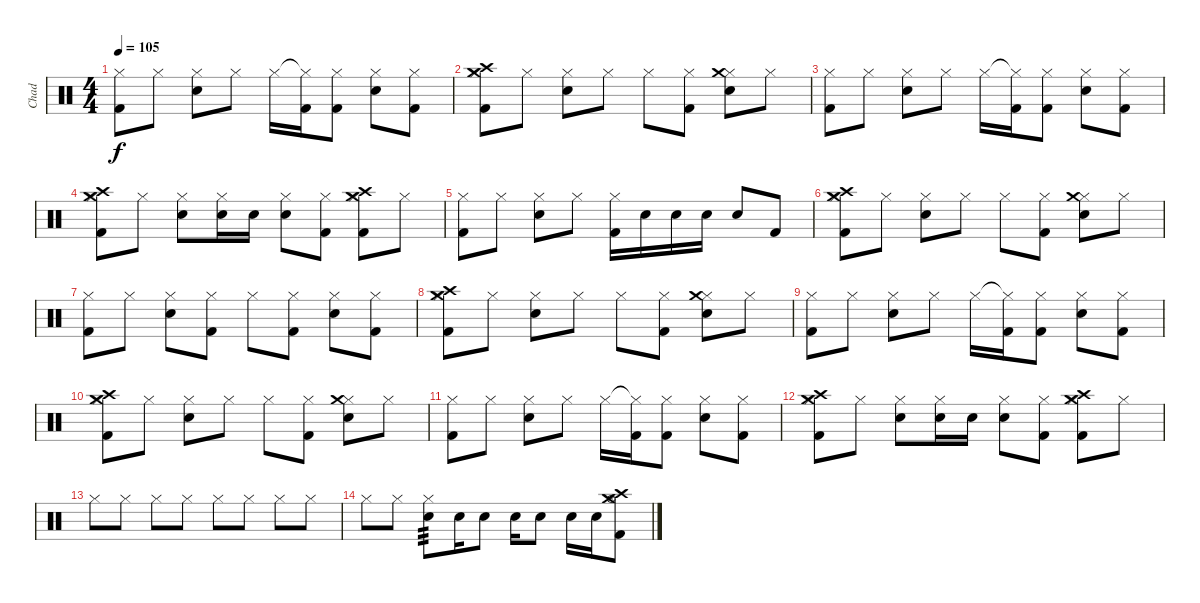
\track ("Chad" "Chad") {instrument percussion}
\staff {score}
\articulation defaults
\ts (4 4)
\tempo 105
\clef neutral
\ks c
("Hi-Hat (closed)" "Kick (hit) 2").8{dy f} "Hi-Hat (closed)".8 ("Hi-Hat (closed)" "Electric Snare (hit)").8 "Hi-Hat (closed)".8 "Hi-Hat (closed)".16 ("Hi-Hat (closed)"{t} "Kick (hit) 2").16 ("Hi-Hat (closed)" "Kick (hit) 2").8 ("Hi-Hat (closed)" "Electric Snare (hit)").8 ("Hi-Hat (closed)" "Kick (hit) 2").8 |
("Hi-Hat (closed)" "Kick (hit) 2" "Crash high (hit)" "Crash medium (hit)").8 "Hi-Hat (closed)".8 ("Hi-Hat (closed)" "Electric Snare (hit)").8 "Hi-Hat (closed)".8 "Hi-Hat (closed)".8 ("Hi-Hat (closed)" "Kick (hit) 2").8 ("Hi-Hat (closed)" "Electric Snare (hit)" "Crash medium (hit)").8 "Hi-Hat (closed)".8 |
("Hi-Hat (closed)" "Kick (hit) 2").8 "Hi-Hat (closed)".8 ("Hi-Hat (closed)" "Electric Snare (hit)").8 "Hi-Hat (closed)".8 "Hi-Hat (closed)".16 ("Hi-Hat (closed)"{t} "Kick (hit) 2").16 ("Hi-Hat (closed)" "Kick (hit) 2").8 ("Hi-Hat (closed)" "Electric Snare (hit)").8 ("Hi-Hat (closed)" "Kick (hit) 2").8 |
("Hi-Hat (closed)" "Kick (hit) 2" "Crash high (hit)" "Crash medium (hit)").8 "Hi-Hat (closed)".8 ("Hi-Hat (closed)" "Electric Snare (hit)").8 ("Hi-Hat (closed)" "Electric Snare (hit)").16 "Electric Snare (hit)".16 ("Hi-Hat (closed)" "Electric Snare (hit)").8 ("Hi-Hat (closed)" "Kick (hit) 2").8 ("Hi-Hat (closed)" "Kick (hit) 2" "Crash medium (hit)" "Crash high (hit)").8 "Hi-Hat (closed)".8 |
("Hi-Hat (closed)" "Kick (hit) 2").8 "Hi-Hat (closed)".8 ("Hi-Hat (closed)" "Electric Snare (hit)").8 "Hi-Hat (closed)".8 ("Hi-Hat (closed)" "Kick (hit) 2").16 "Electric Snare (hit)".16 "Electric Snare (hit)".16 "Electric Snare (hit)".16 "Electric Snare (hit)".8 "Kick (hit) 2".8 |
("Hi-Hat (closed)" "Kick (hit) 2" "Crash high (hit)" "Crash medium (hit)").8 "Hi-Hat (closed)".8 ("Hi-Hat (closed)" "Electric Snare (hit)").8 "Hi-Hat (closed)".8 "Hi-Hat (closed)".8 ("Hi-Hat (closed)" "Kick (hit) 2").8 ("Hi-Hat (closed)" "Electric Snare (hit)" "Crash medium (hit)").8 "Hi-Hat (closed)".8 |
("Hi-Hat (closed)" "Kick (hit) 2").8 "Hi-Hat (closed)".8 ("Hi-Hat (closed)" "Electric Snare (hit)").8 ("Hi-Hat (closed)" "Kick (hit) 2").8 "Hi-Hat (closed)".8 ("Hi-Hat (closed)" "Kick (hit) 2").8 ("Hi-Hat (closed)" "Electric Snare (hit)").8 ("Hi-Hat (closed)" "Kick (hit) 2").8 |
("Hi-Hat (closed)" "Kick (hit) 2" "Crash high (hit)" "Crash medium (hit)").8 "Hi-Hat (closed)".8 ("Hi-Hat (closed)" "Electric Snare (hit)").8 "Hi-Hat (closed)".8 "Hi-Hat (closed)".8 ("Hi-Hat (closed)" "Kick (hit) 2").8 ("Hi-Hat (closed)" "Electric Snare (hit)" "Crash medium (hit)").8 "Hi-Hat (closed)".8 |
("Hi-Hat (closed)" "Kick (hit) 2").8 "Hi-Hat (closed)".8 ("Hi-Hat (closed)" "Electric Snare (hit)").8 "Hi-Hat (closed)".8 "Hi-Hat (closed)".16 ("Hi-Hat (closed)"{t} "Kick (hit) 2").16 ("Hi-Hat (closed)" "Kick (hit) 2").8 ("Hi-Hat (closed)" "Electric Snare (hit)").8 ("Hi-Hat (closed)" "Kick (hit) 2").8 |
("Hi-Hat (closed)" "Kick (hit) 2" "Crash high (hit)" "Crash medium (hit)").8 "Hi-Hat (closed)".8 ("Hi-Hat (closed)" "Electric Snare (hit)").8 "Hi-Hat (closed)".8 "Hi-Hat (closed)".8 ("Hi-Hat (closed)" "Kick (hit) 2").8 ("Hi-Hat (closed)" "Electric Snare (hit)" "Crash medium (hit)").8 "Hi-Hat (closed)".8 |
("Hi-Hat (closed)" "Kick (hit) 2").8 "Hi-Hat (closed)".8 ("Hi-Hat (closed)" "Electric Snare (hit)").8 "Hi-Hat (closed)".8 "Hi-Hat (closed)".16 ("Hi-Hat (closed)"{t} "Kick (hit) 2").16 ("Hi-Hat (closed)" "Kick (hit) 2").8 ("Hi-Hat (closed)" "Electric Snare (hit)").8 ("Hi-Hat (closed)" "Kick (hit) 2").8 |
("Hi-Hat (closed)" "Kick (hit) 2" "Crash high (hit)" "Crash medium (hit)").8 "Hi-Hat (closed)".8 ("Hi-Hat (closed)" "Electric Snare (hit)").8 ("Hi-Hat (closed)" "Electric Snare (hit)").16 "Electric Snare (hit)".16 ("Hi-Hat (closed)" "Electric Snare (hit)").8 ("Hi-Hat (closed)" "Kick (hit) 2").8 ("Hi-Hat (closed)" "Kick (hit) 2" "Crash medium (hit)" "Crash high (hit)").8 "Hi-Hat (closed)".8 |
"Hi-Hat (closed)".8 "Hi-Hat (closed)".8 "Hi-Hat (closed)".8 "Hi-Hat (closed)".8 "Hi-Hat (closed)".8 "Hi-Hat (closed)".8 "Hi-Hat (closed)".8 "Hi-Hat (closed)".8 |
"Hi-Hat (closed)".8 "Hi-Hat (closed)".8 ("Hi-Hat (closed)" "Electric Snare (hit)").8{tp 3} "Electric Snare (hit)".16 "Electric Snare (hit)".8 "Electric Snare (hit)".16 "Electric Snare (hit)".8 "Electric Snare (hit)".16 "Electric Snare (hit)".16 ("Hi-Hat (open)" "Kick (hit) 2" "Crash high (hit)" "Crash medium (hit)").8
